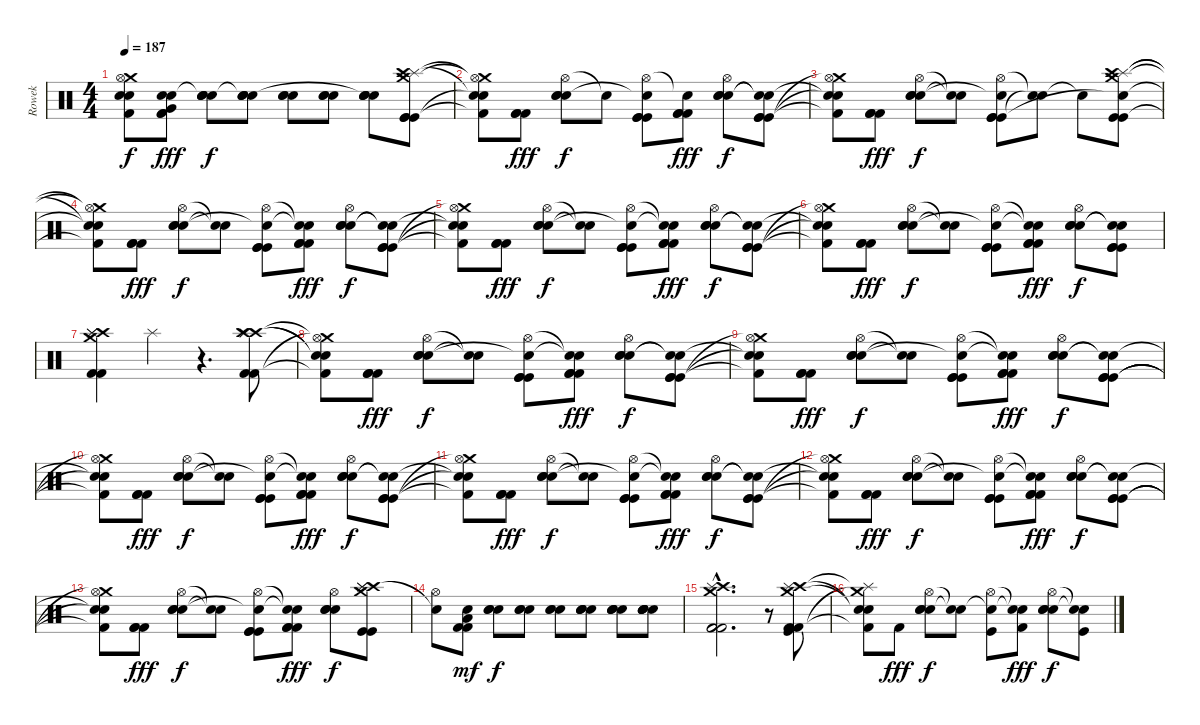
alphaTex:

\track ("Rowek" "Rowek") {instrument percussion}
\staff {score}
\articulation defaults
\ts (4 4)
\tempo 187
\clef neutral
\ks c
("Crash medium (hit)"{t} "Hi-Hat (open)" "Snare (hit)"{t} "Snare (hit)"{t} "Kick (hit) 2"{t}).8{dy f} ("Kick (hit) 2" "Electric Snare (hit)" "Very Low Tom (hit)" "Electric Snare (hit)" "Kick (hit) 2").8{dy fff} ("Electric Snare (hit)" "Electric Snare (hit)" "Electric Snare (hit)" "Snare (hit)"{t}).8{dy f} ("Electric Snare (hit)" "Electric Snare (hit)" "Electric Snare (hit)" "Snare (hit)"{t}).8 ("Electric Snare (hit)" "Electric Snare (hit)" "Electric Snare (hit)").8 ("Electric Snare (hit)" "Electric Snare (hit)" "Electric Snare (hit)").8 ("Electric Snare (hit)" "Electric Snare (hit)" "Electric Snare (hit)" "Snare (hit)"{t}).8 ("Crash medium (hit)" "Splash (hit)" "Crash high (hit)" "Kick (hit)" "Kick (hit)" "Kick (hit)").8 |
("Crash medium (hit)"{t} "Hi-Hat (open)"{t} "Snare (hit)"{t} "Snare (hit)"{t} "Kick (hit) 2"{t}).8 ("Kick (hit) 2" "Kick (hit) 2" "Kick (hit) 2").8{dy fff} ("Hi-Hat (open)" "Electric Snare (hit)" "Electric Snare (hit)" "Electric Snare (hit)").8{dy f} "Snare (hit)"{t}.8 ("Kick (hit)" "Hi-Hat (open)" "Snare (hit)"{t} "Kick (hit)" "Kick (hit)").8 ("Kick (hit) 2" "Snare (hit)"{t} "Kick (hit) 2" "Kick (hit) 2").8{dy fff} ("Hi-Hat (open)" "Electric Snare (hit)" "Electric Snare (hit)" "Electric Snare (hit)").8{dy f} ("Kick (hit)" "Snare (hit)"{t} "Snare (hit)"{t} "Kick (hit)" "Kick (hit)").8 |
("Crash medium (hit)"{t} "Hi-Hat (open)" "Snare (hit)"{t} "Snare (hit)"{t} "Kick (hit) 2"{t}).8 ("Kick (hit) 2" "Kick (hit) 2" "Kick (hit) 2").8{dy fff} ("Hi-Hat (open)" "Electric Snare (hit)" "Electric Snare (hit)" "Electric Snare (hit)").8{dy f} ("Snare (hit)"{t} "Snare (hit)"{t}).8 ("Kick (hit)" "Hi-Hat (open)" "Snare (hit)"{t} "Kick (hit)" "Kick (hit)").8 ("Snare (hit)"{t} "Snare (hit)"{t}).8 "Snare (hit)"{t}.8 ("Crash medium (hit)" "Splash (hit)" "Crash high (hit)" "Snare (hit)"{t} "Kick (hit)" "Kick (hit)").8 |
("Crash medium (hit)"{t} "Hi-Hat (open)"{t} "Snare (hit)"{t} "Snare (hit)"{t} "Kick (hit) 2"{t}).8 ("Kick (hit) 2" "Kick (hit) 2" "Kick (hit) 2").8{dy fff} ("Hi-Hat (open)" "Electric Snare (hit)" "Electric Snare (hit)" "Electric Snare (hit)").8{dy f} ("Snare (hit)"{t} "Snare (hit)"{t}).8 ("Kick (hit)" "Hi-Hat (open)" "Snare (hit)"{t} "Kick (hit)" "Kick (hit)").8 ("Kick (hit) 2" "Snare (hit)"{t} "Snare (hit)"{t} "Kick (hit) 2" "Kick (hit) 2").8{dy fff} ("Hi-Hat (open)" "Electric Snare (hit)" "Electric Snare (hit)" "Electric Snare (hit)").8{dy f} ("Kick (hit)" "Snare (hit)"{t} "Snare (hit)"{t} "Kick (hit)" "Kick (hit)").8 |
("Crash medium (hit)"{t} "Hi-Hat (open)" "Snare (hit)"{t} "Snare (hit)"{t} "Kick (hit) 2"{t}).8 ("Kick (hit) 2" "Kick (hit) 2" "Kick (hit) 2").8{dy fff} ("Hi-Hat (open)" "Electric Snare (hit)" "Electric Snare (hit)" "Electric Snare (hit)").8{dy f} ("Snare (hit)"{t} "Snare (hit)"{t}).8 ("Kick (hit)" "Hi-Hat (open)" "Snare (hit)"{t} "Kick (hit)" "Kick (hit)").8 ("Kick (hit) 2" "Snare (hit)"{t} "Snare (hit)"{t} "Kick (hit) 2" "Kick (hit) 2").8{dy fff} ("Hi-Hat (open)" "Electric Snare (hit)" "Electric Snare (hit)" "Electric Snare (hit)").8{dy f} ("Kick (hit)" "Snare (hit)"{t} "Snare (hit)"{t} "Kick (hit)" "Kick (hit)").8 |
("Crash medium (hit)"{t} "Hi-Hat (open)" "Snare (hit)"{t} "Snare (hit)"{t} "Kick (hit) 2"{t}).8 ("Kick (hit) 2" "Kick (hit) 2" "Kick (hit) 2").8{dy fff} ("Hi-Hat (open)" "Electric Snare (hit)" "Electric Snare (hit)" "Electric Snare (hit)").8{dy f} ("Snare (hit)"{t} "Snare (hit)"{t}).8 ("Kick (hit)" "Hi-Hat (open)" "Snare (hit)"{t} "Kick (hit)" "Kick (hit)").8 ("Kick (hit) 2" "Snare (hit)"{t} "Snare (hit)"{t} "Kick (hit) 2" "Kick (hit) 2").8{dy fff} ("Hi-Hat (open)" "Electric Snare (hit)" "Electric Snare (hit)" "Electric Snare (hit)").8{dy f} ("Kick (hit)" "Snare (hit)"{t} "Snare (hit)"{t} "Kick (hit)" "Kick (hit)").8 |
("Kick (hit) 2" "Crash high (hit)" "Crash medium (hit)" "Splash (hit)" "Kick (hit) 2" "Splash (hit)").4 "Splash (hit)".4 r.4{d} ("Kick (hit) 2" "Crash high (hit)" "Crash high (hit)" "Splash (hit)" "Kick (hit) 2" "Splash (hit)").8 |
("Crash medium (hit)"{t} "Hi-Hat (open)"{t} "Snare (hit)"{t} "Snare (hit)"{t} "Kick (hit) 2"{t}).8 ("Kick (hit) 2" "Kick (hit) 2" "Kick (hit) 2").8{dy fff} ("Hi-Hat (open)" "Electric Snare (hit)" "Electric Snare (hit)" "Electric Snare (hit)").8{dy f} ("Snare (hit)"{t} "Snare (hit)"{t}).8 ("Kick (hit)" "Hi-Hat (open)" "Snare (hit)"{t} "Kick (hit)" "Kick (hit)").8 ("Kick (hit) 2" "Snare (hit)"{t} "Snare (hit)"{t} "Kick (hit) 2" "Kick (hit) 2").8{dy fff} ("Hi-Hat (open)" "Electric Snare (hit)" "Electric Snare (hit)" "Electric Snare (hit)").8{dy f} ("Kick (hit)" "Snare (hit)"{t} "Snare (hit)"{t} "Kick (hit)" "Kick (hit)").8 |
("Crash medium (hit)"{t} "Hi-Hat (open)" "Snare (hit)"{t} "Snare (hit)"{t} "Kick (hit) 2"{t}).8 ("Kick (hit) 2" "Kick (hit) 2" "Kick (hit) 2").8{dy fff} ("Hi-Hat (open)" "Electric Snare (hit)" "Electric Snare (hit)" "Electric Snare (hit)").8{dy f} ("Snare (hit)"{t} "Snare (hit)"{t}).8 ("Kick (hit)" "Hi-Hat (open)" "Snare (hit)"{t} "Kick (hit)" "Kick (hit)").8 ("Kick (hit) 2" "Snare (hit)"{t} "Snare (hit)"{t} "Kick (hit) 2" "Kick (hit) 2").8{dy fff} ("Hi-Hat (open)" "Electric Snare (hit)" "Electric Snare (hit)" "Electric Snare (hit)").8{dy f} ("Kick (hit)" "Snare (hit)"{t} "Snare (hit)"{t} "Kick (hit)" "Kick (hit)").8 |
("Crash medium (hit)"{t} "Hi-Hat (open)" "Snare (hit)"{t} "Snare (hit)"{t} "Kick (hit) 2"{t}).8 ("Kick (hit) 2" "Kick (hit) 2" "Kick (hit) 2").8{dy fff} ("Hi-Hat (open)" "Electric Snare (hit)" "Electric Snare (hit)" "Electric Snare (hit)").8{dy f} ("Snare (hit)"{t} "Snare (hit)"{t}).8 ("Kick (hit)" "Hi-Hat (open)" "Snare (hit)"{t} "Kick (hit)" "Kick (hit)").8 ("Kick (hit) 2" "Snare (hit)"{t} "Snare (hit)"{t} "Kick (hit) 2" "Kick (hit) 2").8{dy fff} ("Hi-Hat (open)" "Electric Snare (hit)" "Electric Snare (hit)" "Electric Snare (hit)").8{dy f} ("Kick (hit)" "Snare (hit)"{t} "Snare (hit)"{t} "Kick (hit)" "Kick (hit)").8 |
("Crash medium (hit)"{t} "Hi-Hat (open)" "Snare (hit)"{t} "Snare (hit)"{t} "Kick (hit) 2"{t}).8 ("Kick (hit) 2" "Kick (hit) 2" "Kick (hit) 2").8{dy fff} ("Hi-Hat (open)" "Electric Snare (hit)" "Electric Snare (hit)" "Electric Snare (hit)").8{dy f} ("Snare (hit)"{t} "Snare (hit)"{t}).8 ("Kick (hit)" "Hi-Hat (open)" "Snare (hit)"{t} "Kick (hit)" "Kick (hit)").8 ("Kick (hit) 2" "Snare (hit)"{t} "Snare (hit)"{t} "Kick (hit) 2" "Kick (hit) 2").8{dy fff} ("Hi-Hat (open)" "Electric Snare (hit)" "Electric Snare (hit)" "Electric Snare (hit)").8{dy f} ("Kick (hit)" "Snare (hit)"{t} "Snare (hit)"{t} "Kick (hit)" "Kick (hit)").8 |
("Crash medium (hit)"{t} "Hi-Hat (open)" "Snare (hit)"{t} "Snare (hit)"{t} "Kick (hit) 2"{t}).8 ("Kick (hit) 2" "Kick (hit) 2" "Kick (hit) 2").8{dy fff} ("Hi-Hat (open)" "Electric Snare (hit)" "Electric Snare (hit)" "Electric Snare (hit)").8{dy f} ("Snare (hit)"{t} "Snare (hit)"{t}).8 ("Kick (hit)" "Hi-Hat (open)" "Snare (hit)"{t} "Kick (hit)" "Kick (hit)").8 ("Kick (hit) 2" "Snare (hit)"{t} "Snare (hit)"{t} "Kick (hit) 2" "Kick (hit) 2").8{dy fff} ("Hi-Hat (open)" "Electric Snare (hit)" "Electric Snare (hit)" "Electric Snare (hit)").8{dy f} ("Kick (hit)" "Snare (hit)"{t} "Snare (hit)"{t} "Kick (hit)" "Kick (hit)").8 |
("Crash medium (hit)"{t} "Hi-Hat (open)" "Snare (hit)"{t} "Snare (hit)"{t} "Kick (hit) 2"{t}).8 ("Kick (hit) 2" "Kick (hit) 2" "Kick (hit) 2").8{dy fff} ("Hi-Hat (open)" "Electric Snare (hit)" "Electric Snare (hit)" "Electric Snare (hit)").8{dy f} ("Snare (hit)"{t} "Snare (hit)"{t}).8 ("Kick (hit)" "Hi-Hat (open)" "Snare (hit)"{t} "Kick (hit)" "Kick (hit)").8 ("Kick (hit) 2" "Snare (hit)"{t} "Snare (hit)"{t} "Kick (hit) 2" "Kick (hit) 2").8{dy fff} ("Hi-Hat (open)" "Electric Snare (hit)" "Electric Snare (hit)" "Electric Snare (hit)").8{dy f} ("Crash high (hit)" "Splash (hit)" "Crash medium (hit)" "Splash (hit)" "Kick (hit)" "Kick (hit)").8 |
("Snare (hit)"{t} "Hi-Hat (open)").8 ("Kick (hit) 2" "Electric Snare (hit)" "Low Tom (hit)" "Kick (hit) 2").8{dy mf} ("Electric Snare (hit)" "Electric Snare (hit)" "Electric Snare (hit)").8{dy f} ("Electric Snare (hit)" "Electric Snare (hit)" "Electric Snare (hit)").8 ("Electric Snare (hit)" "Electric Snare (hit)" "Electric Snare (hit)").8 ("Electric Snare (hit)" "Electric Snare (hit)" "Electric Snare (hit)" "Electric Snare (hit)").8 ("Electric Snare (hit)" "Electric Snare (hit)" "Electric Snare (hit)" "Electric Snare (hit)").8 ("Electric Snare (hit)" "Electric Snare (hit)" "Electric Snare (hit)" "Electric Snare (hit)" "Electric Snare (hit)").8 |
("Kick (hit) 2"{hac} "Crash high (hit)"{hac} "Crash medium (hit)"{hac} "Splash (hit)"{hac} "Kick (hit) 2"{hac} "Kick (hit) 2"{hac}).2{d} r.8 ("Kick (hit) 2" "Crash high (hit)" "Crash medium (hit)" "Splash (hit)" "Kick (hit) 2" "Kick (hit)").8 |
("Crash medium (hit)"{t} "Splash (hit)"{t} "Snare (hit)"{t} "Snare (hit)"{t} "Kick (hit) 2"{t}).8 "Kick (hit) 2".8{dy fff} ("Hi-Hat (open)" "Electric Snare (hit)" "Electric Snare (hit)" "Electric Snare (hit)").8{dy f} ("Snare (hit)"{t} "Snare (hit)"{t}).8 ("Hi-Hat (open)" "Snare (hit)"{t} "Kick (hit)").8 ("Snare (hit)"{t} "Snare (hit)"{t} "Kick (hit) 2").8{dy fff} ("Hi-Hat (open)" "Electric Snare (hit)" "Electric Snare (hit)" "Electric Snare (hit)").8{dy f} ("Snare (hit)"{t} "Snare (hit)"{t} "Kick (hit)").8
